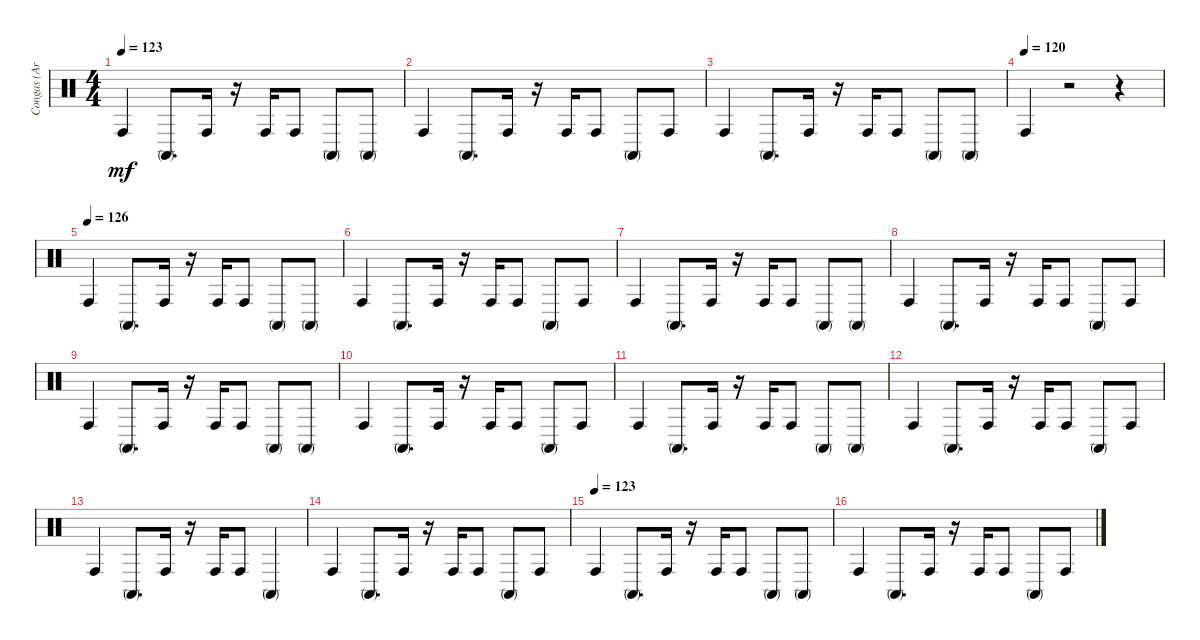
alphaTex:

\track ("Congas (Arthur Jenkins)" "Congas (Ar") {instrument percussion}
\staff {score}
\articulation defaults
\ts (4 4)
\tempo 123
\clef neutral
\ks c "Conga high (hit)".4{dy mf} "Conga high (mute)".8{d} "Conga high (hit)".16
r.16 "Conga high (hit)".16 "Conga high (hit)".8 "Conga high (mute)".8 "Conga high (mute)".8 |
"Conga high (hit)".4 "Conga high (mute)".8{d} "Conga high (hit)".16 r.16 "Conga high (hit)".16 "Conga high (hit)".8 "Conga high (mute)".8 "Conga high (hit)".8 |
"Conga high (hit)".4 "Conga high (mute)".8{d} "Conga high (hit)".16 r.16 "Conga high (hit)".16 "Conga high (hit)".8 "Conga high (mute)".8 "Conga high (mute)".8 |
\tempo (120)
"Conga high (hit)".4 r.2 r.4 |
\tempo (126)
"Conga high (hit)".4 "Conga high (mute)".8{d} "Conga high (hit)".16 r.16 "Conga high (hit)".16 "Conga high (hit)".8 "Conga high (mute)".8 "Conga high (mute)".8 |
"Conga high (hit)".4 "Conga high (mute)".8{d} "Conga high (hit)".16 r.16 "Conga high (hit)".16 "Conga high (hit)".8 "Conga high (mute)".8 "Conga high (hit)".8 |
"Conga high (hit)".4 "Conga high (mute)".8{d} "Conga high (hit)".16 r.16 "Conga high (hit)".16 "Conga high (hit)".8 "Conga high (mute)".8 "Conga high (mute)".8 |
"Conga high (hit)".4 "Conga high (mute)".8{d} "Conga high (hit)".16 r.16 "Conga high (hit)".16 "Conga high (hit)".8 "Conga high (mute)".8 "Conga high (hit)".8 |
"Conga high (hit)".4 "Conga high (mute)".8{d} "Conga high (hit)".16 r.16 "Conga high (hit)".16 "Conga high (hit)".8 "Conga high (mute)".8 "Conga high (mute)".8 |
"Conga high (hit)".4 "Conga high (mute)".8{d} "Conga high (hit)".16 r.16 "Conga high (hit)".16 "Conga high (hit)".8 "Conga high (mute)".8 "Conga high (hit)".8 |
"Conga high (hit)".4 "Conga high (mute)".8{d} "Conga high (hit)".16 r.16 "Conga high (hit)".16 "Conga high (hit)".8 "Conga high (mute)".8 "Conga high (mute)".8 |
"Conga high (hit)".4 "Conga high (mute)".8{d} "Conga high (hit)".16 r.16 "Conga high (hit)".16 "Conga high (hit)".8 "Conga high (mute)".8 "Conga high (hit)".8 |
"Conga high (hit)".4 "Conga high (mute)".8{d} "Conga high (hit)".16 r.16 "Conga high (hit)".16 "Conga high (hit)".8 "Conga high (mute)".4 |
"Conga high (hit)".4 "Conga high (mute)".8{d} "Conga high (hit)".16 r.16 "Conga high (hit)".16 "Conga high (hit)".8 "Conga high (mute)".8 "Conga high (hit)".8 |
\tempo (123)
"Conga high (hit)".4 "Conga high (mute)".8{d} "Conga high (hit)".16 r.16 "Conga high (hit)".16 "Conga high (hit)".8 "Conga high (mute)".8 "Conga high (mute)".8 |
"Conga high (hit)".4 "Conga high (mute)".8{d} "Conga high (hit)".16 r.16 "Conga high (hit)".16 "Conga high (hit)".8 "Conga high (mute)".8 "Conga high (hit)".8
